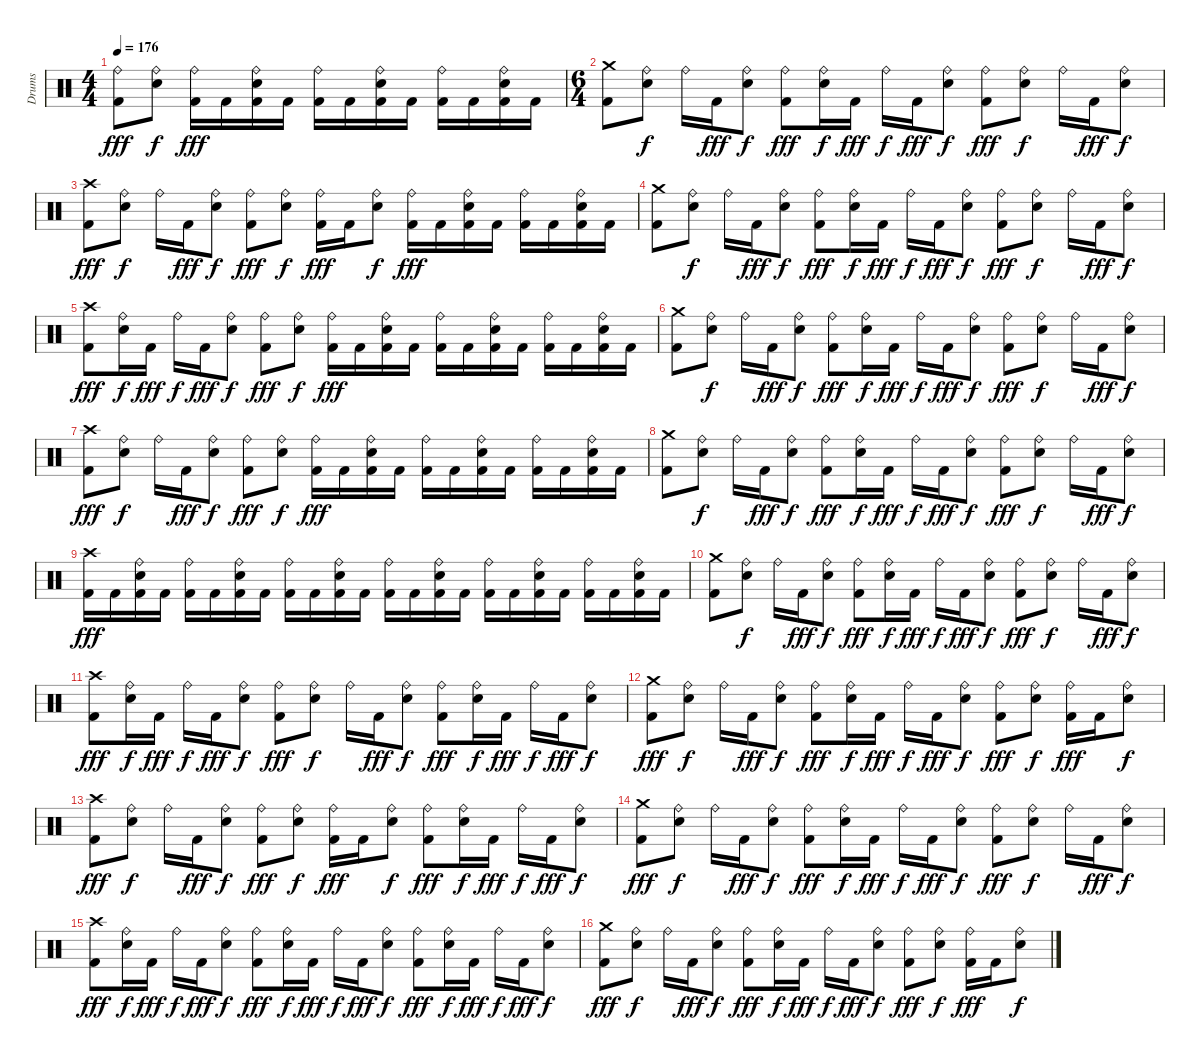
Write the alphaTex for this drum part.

\track ("Drums" "Drums") {instrument percussion}
\staff {score}
\articulation defaults
\ts (4 4)
\tempo 176
\clef neutral
\ks c
("Ride (bell)" "Kick (hit) 2").8{dy fff} ("Ride (bell)" "Snare (hit) 2").8{dy f} ("Ride (bell)" "Kick (hit) 2").16{dy fff} "Kick (hit) 2".16 ("Ride (bell)" "Snare (hit) 2" "Kick (hit) 2").16 "Kick (hit) 2".16 ("Ride (bell)" "Kick (hit) 2").16 "Kick (hit) 2".16 ("Ride (bell)" "Snare (hit) 2" "Kick (hit) 2").16 "Kick (hit) 2".16 ("Ride (bell)" "Kick (hit) 2").16 "Kick (hit) 2".16 ("Ride (bell)" "Snare (hit) 2" "Kick (hit) 2").16 "Kick (hit) 2".16 |
\ts (6 4)
("Crash medium (hit)" "Kick (hit) 2").8 ("Ride (bell)" "Snare (hit) 2").8{dy f} "Ride (bell)".16 "Kick (hit) 2".16{dy fff} ("Ride (bell)" "Snare (hit) 2").8{dy f} ("Ride (bell)" "Kick (hit) 2").8{dy fff} ("Ride (bell)" "Snare (hit) 2").16{dy f} "Kick (hit) 2".16{dy fff} "Ride (bell)".16{dy f} "Kick (hit) 2".16{dy fff} ("Ride (bell)" "Snare (hit) 2").8{dy f} ("Ride (bell)" "Kick (hit) 2").8{dy fff} ("Ride (bell)" "Snare (hit) 2").8{dy f} "Ride (bell)".16 "Kick (hit) 2".16{dy fff} ("Ride (bell)" "Snare (hit) 2").8{dy f} |
("Crash high (hit)" "Kick (hit) 2").8{dy fff} ("Ride (bell)" "Snare (hit) 2").8{dy f} "Ride (bell)".16 "Kick (hit) 2".16{dy fff} ("Ride (bell)" "Snare (hit) 2").8{dy f} ("Ride (bell)" "Kick (hit) 2").8{dy fff} ("Ride (bell)" "Snare (hit) 2").8{dy f} ("Ride (bell)" "Kick (hit) 2").16{dy fff} "Kick (hit) 2".16 ("Ride (bell)" "Snare (hit) 2").8{dy f} ("Ride (bell)" "Kick (hit) 2").16{dy fff} "Kick (hit) 2".16 ("Ride (bell)" "Snare (hit) 2" "Kick (hit) 2").16 "Kick (hit) 2".16 ("Ride (bell)" "Kick (hit) 2").16 "Kick (hit) 2".16 ("Ride (bell)" "Snare (hit) 2" "Kick (hit) 2").16 "Kick (hit) 2".16 |
("Crash medium (hit)" "Kick (hit) 2").8 ("Ride (bell)" "Snare (hit) 2").8{dy f} "Ride (bell)".16 "Kick (hit) 2".16{dy fff} ("Ride (bell)" "Snare (hit) 2").8{dy f} ("Ride (bell)" "Kick (hit) 2").8{dy fff} ("Ride (bell)" "Snare (hit) 2").16{dy f} "Kick (hit) 2".16{dy fff} "Ride (bell)".16{dy f} "Kick (hit) 2".16{dy fff} ("Ride (bell)" "Snare (hit) 2").8{dy f} ("Ride (bell)" "Kick (hit) 2").8{dy fff} ("Ride (bell)" "Snare (hit) 2").8{dy f} "Ride (bell)".16 "Kick (hit) 2".16{dy fff} ("Ride (bell)" "Snare (hit) 2").8{dy f} |
("Crash high (hit)" "Kick (hit) 2").8{dy fff} ("Ride (bell)" "Snare (hit) 2").16{dy f} "Kick (hit) 2".16{dy fff} "Ride (bell)".16{dy f} "Kick (hit) 2".16{dy fff} ("Ride (bell)" "Snare (hit) 2").8{dy f} ("Ride (bell)" "Kick (hit) 2").8{dy fff} ("Ride (bell)" "Snare (hit) 2").8{dy f} ("Ride (bell)" "Kick (hit) 2").16{dy fff} "Kick (hit) 2".16 ("Ride (bell)" "Snare (hit) 2" "Kick (hit) 2").16 "Kick (hit) 2".16 ("Ride (bell)" "Kick (hit) 2").16 "Kick (hit) 2".16 ("Ride (bell)" "Snare (hit) 2" "Kick (hit) 2").16 "Kick (hit) 2".16 ("Ride (bell)" "Kick (hit) 2").16 "Kick (hit) 2".16 ("Ride (bell)" "Snare (hit) 2" "Kick (hit) 2").16 "Kick (hit) 2".16 |
("Crash medium (hit)" "Kick (hit) 2").8 ("Ride (bell)" "Snare (hit) 2").8{dy f} "Ride (bell)".16 "Kick (hit) 2".16{dy fff} ("Ride (bell)" "Snare (hit) 2").8{dy f} ("Ride (bell)" "Kick (hit) 2").8{dy fff} ("Ride (bell)" "Snare (hit) 2").16{dy f} "Kick (hit) 2".16{dy fff} "Ride (bell)".16{dy f} "Kick (hit) 2".16{dy fff} ("Ride (bell)" "Snare (hit) 2").8{dy f} ("Ride (bell)" "Kick (hit) 2").8{dy fff} ("Ride (bell)" "Snare (hit) 2").8{dy f} "Ride (bell)".16 "Kick (hit) 2".16{dy fff} ("Ride (bell)" "Snare (hit) 2").8{dy f} |
("Crash high (hit)" "Kick (hit) 2").8{dy fff} ("Ride (bell)" "Snare (hit) 2").8{dy f} "Ride (bell)".16 "Kick (hit) 2".16{dy fff} ("Ride (bell)" "Snare (hit) 2").8{dy f} ("Ride (bell)" "Kick (hit) 2").8{dy fff} ("Ride (bell)" "Snare (hit) 2").8{dy f} ("Ride (bell)" "Kick (hit) 2").16{dy fff} "Kick (hit) 2".16 ("Ride (bell)" "Snare (hit) 2" "Kick (hit) 2").16 "Kick (hit) 2".16 ("Ride (bell)" "Kick (hit) 2").16 "Kick (hit) 2".16 ("Ride (bell)" "Snare (hit) 2" "Kick (hit) 2").16 "Kick (hit) 2".16 ("Ride (bell)" "Kick (hit) 2").16 "Kick (hit) 2".16 ("Ride (bell)" "Snare (hit) 2" "Kick (hit) 2").16 "Kick (hit) 2".16 |
("Crash medium (hit)" "Kick (hit) 2").8 ("Ride (bell)" "Snare (hit) 2").8{dy f} "Ride (bell)".16 "Kick (hit) 2".16{dy fff} ("Ride (bell)" "Snare (hit) 2").8{dy f} ("Ride (bell)" "Kick (hit) 2").8{dy fff} ("Ride (bell)" "Snare (hit) 2").16{dy f} "Kick (hit) 2".16{dy fff} "Ride (bell)".16{dy f} "Kick (hit) 2".16{dy fff} ("Ride (bell)" "Snare (hit) 2").8{dy f} ("Ride (bell)" "Kick (hit) 2").8{dy fff} ("Ride (bell)" "Snare (hit) 2").8{dy f} "Ride (bell)".16 "Kick (hit) 2".16{dy fff} ("Ride (bell)" "Snare (hit) 2").8{dy f} |
("Crash high (hit)" "Kick (hit) 2").16{dy fff} "Kick (hit) 2".16 ("Ride (bell)" "Snare (hit) 2" "Kick (hit) 2").16 "Kick (hit) 2".16 ("Ride (bell)" "Kick (hit) 2").16 "Kick (hit) 2".16 ("Ride (bell)" "Snare (hit) 2" "Kick (hit) 2").16 "Kick (hit) 2".16 ("Ride (bell)" "Kick (hit) 2").16 "Kick (hit) 2".16 ("Ride (bell)" "Snare (hit) 2" "Kick (hit) 2").16 "Kick (hit) 2".16 ("Ride (bell)" "Kick (hit) 2").16 "Kick (hit) 2".16 ("Ride (bell)" "Snare (hit) 2" "Kick (hit) 2").16 "Kick (hit) 2".16 ("Ride (bell)" "Kick (hit) 2").16 "Kick (hit) 2".16 ("Ride (bell)" "Snare (hit) 2" "Kick (hit) 2").16 "Kick (hit) 2".16 ("Ride (bell)" "Kick (hit) 2").16 "Kick (hit) 2".16 ("Ride (bell)" "Snare (hit) 2" "Kick (hit) 2").16 "Kick (hit) 2".16 |
("Crash medium (hit)" "Kick (hit) 2").8 ("Ride (bell)" "Snare (hit) 2").8{dy f} "Ride (bell)".16 "Kick (hit) 2".16{dy fff} ("Ride (bell)" "Snare (hit) 2").8{dy f} ("Ride (bell)" "Kick (hit) 2").8{dy fff} ("Ride (bell)" "Snare (hit) 2").16{dy f} "Kick (hit) 2".16{dy fff} "Ride (bell)".16{dy f} "Kick (hit) 2".16{dy fff} ("Ride (bell)" "Snare (hit) 2").8{dy f} ("Ride (bell)" "Kick (hit) 2").8{dy fff} ("Ride (bell)" "Snare (hit) 2").8{dy f} "Ride (bell)".16 "Kick (hit) 2".16{dy fff} ("Ride (bell)" "Snare (hit) 2").8{dy f} |
("Crash high (hit)" "Kick (hit) 2").8{dy fff} ("Ride (bell)" "Snare (hit) 2").16{dy f} "Kick (hit) 2".16{dy fff} "Ride (bell)".16{dy f} "Kick (hit) 2".16{dy fff} ("Ride (bell)" "Snare (hit) 2").8{dy f} ("Ride (bell)" "Kick (hit) 2").8{dy fff} ("Ride (bell)" "Snare (hit) 2").8{dy f} "Ride (bell)".16 "Kick (hit) 2".16{dy fff} ("Ride (bell)" "Snare (hit) 2").8{dy f} ("Ride (bell)" "Kick (hit) 2").8{dy fff} ("Ride (bell)" "Snare (hit) 2").16{dy f} "Kick (hit) 2".16{dy fff} "Ride (bell)".16{dy f} "Kick (hit) 2".16{dy fff} ("Ride (bell)" "Snare (hit) 2").8{dy f} |
("Crash medium (hit)" "Kick (hit) 2").8{dy fff} ("Ride (bell)" "Snare (hit) 2").8{dy f} "Ride (bell)".16 "Kick (hit) 2".16{dy fff} ("Ride (bell)" "Snare (hit) 2").8{dy f} ("Ride (bell)" "Kick (hit) 2").8{dy fff} ("Ride (bell)" "Snare (hit) 2").16{dy f} "Kick (hit) 2".16{dy fff} "Ride (bell)".16{dy f} "Kick (hit) 2".16{dy fff} ("Ride (bell)" "Snare (hit) 2").8{dy f} ("Ride (bell)" "Kick (hit) 2").8{dy fff} ("Ride (bell)" "Snare (hit) 2").8{dy f} ("Ride (bell)" "Kick (hit) 2").16{dy fff} "Kick (hit) 2".16 ("Ride (bell)" "Snare (hit) 2").8{dy f} |
("Crash high (hit)" "Kick (hit) 2").8{dy fff} ("Ride (bell)" "Snare (hit) 2").8{dy f} "Ride (bell)".16 "Kick (hit) 2".16{dy fff} ("Ride (bell)" "Snare (hit) 2").8{dy f} ("Ride (bell)" "Kick (hit) 2").8{dy fff} ("Ride (bell)" "Snare (hit) 2").8{dy f} ("Ride (bell)" "Kick (hit) 2").16{dy fff} "Kick (hit) 2".16 ("Ride (bell)" "Snare (hit) 2").8{dy f} ("Ride (bell)" "Kick (hit) 2").8{dy fff} ("Ride (bell)" "Snare (hit) 2").16{dy f} "Kick (hit) 2".16{dy fff} "Ride (bell)".16{dy f} "Kick (hit) 2".16{dy fff} ("Ride (bell)" "Snare (hit) 2").8{dy f} |
("Crash medium (hit)" "Kick (hit) 2").8{dy fff} ("Ride (bell)" "Snare (hit) 2").8{dy f} "Ride (bell)".16 "Kick (hit) 2".16{dy fff} ("Ride (bell)" "Snare (hit) 2").8{dy f} ("Ride (bell)" "Kick (hit) 2").8{dy fff} ("Ride (bell)" "Snare (hit) 2").16{dy f} "Kick (hit) 2".16{dy fff} "Ride (bell)".16{dy f} "Kick (hit) 2".16{dy fff} ("Ride (bell)" "Snare (hit) 2").8{dy f} ("Ride (bell)" "Kick (hit) 2").8{dy fff} ("Ride (bell)" "Snare (hit) 2").8{dy f} "Ride (bell)".16 "Kick (hit) 2".16{dy fff} ("Ride (bell)" "Snare (hit) 2").8{dy f} |
("Crash high (hit)" "Kick (hit) 2").8{dy fff} ("Ride (bell)" "Snare (hit) 2").16{dy f} "Kick (hit) 2".16{dy fff} "Ride (bell)".16{dy f} "Kick (hit) 2".16{dy fff} ("Ride (bell)" "Snare (hit) 2").8{dy f} ("Ride (bell)" "Kick (hit) 2").8{dy fff} ("Ride (bell)" "Snare (hit) 2").16{dy f} "Kick (hit) 2".16{dy fff} "Ride (bell)".16{dy f} "Kick (hit) 2".16{dy fff} ("Ride (bell)" "Snare (hit) 2").8{dy f} ("Ride (bell)" "Kick (hit) 2").8{dy fff} ("Ride (bell)" "Snare (hit) 2").16{dy f} "Kick (hit) 2".16{dy fff} "Ride (bell)".16{dy f} "Kick (hit) 2".16{dy fff} ("Ride (bell)" "Snare (hit) 2").8{dy f} |
("Crash medium (hit)" "Kick (hit) 2").8{dy fff} ("Ride (bell)" "Snare (hit) 2").8{dy f} "Ride (bell)".16 "Kick (hit) 2".16{dy fff} ("Ride (bell)" "Snare (hit) 2").8{dy f} ("Ride (bell)" "Kick (hit) 2").8{dy fff} ("Ride (bell)" "Snare (hit) 2").16{dy f} "Kick (hit) 2".16{dy fff} "Ride (bell)".16{dy f} "Kick (hit) 2".16{dy fff} ("Ride (bell)" "Snare (hit) 2").8{dy f} ("Ride (bell)" "Kick (hit) 2").8{dy fff} ("Ride (bell)" "Snare (hit) 2").8{dy f} ("Ride (bell)" "Kick (hit) 2").16{dy fff} "Kick (hit) 2".16 ("Ride (bell)" "Snare (hit) 2").8{dy f}
